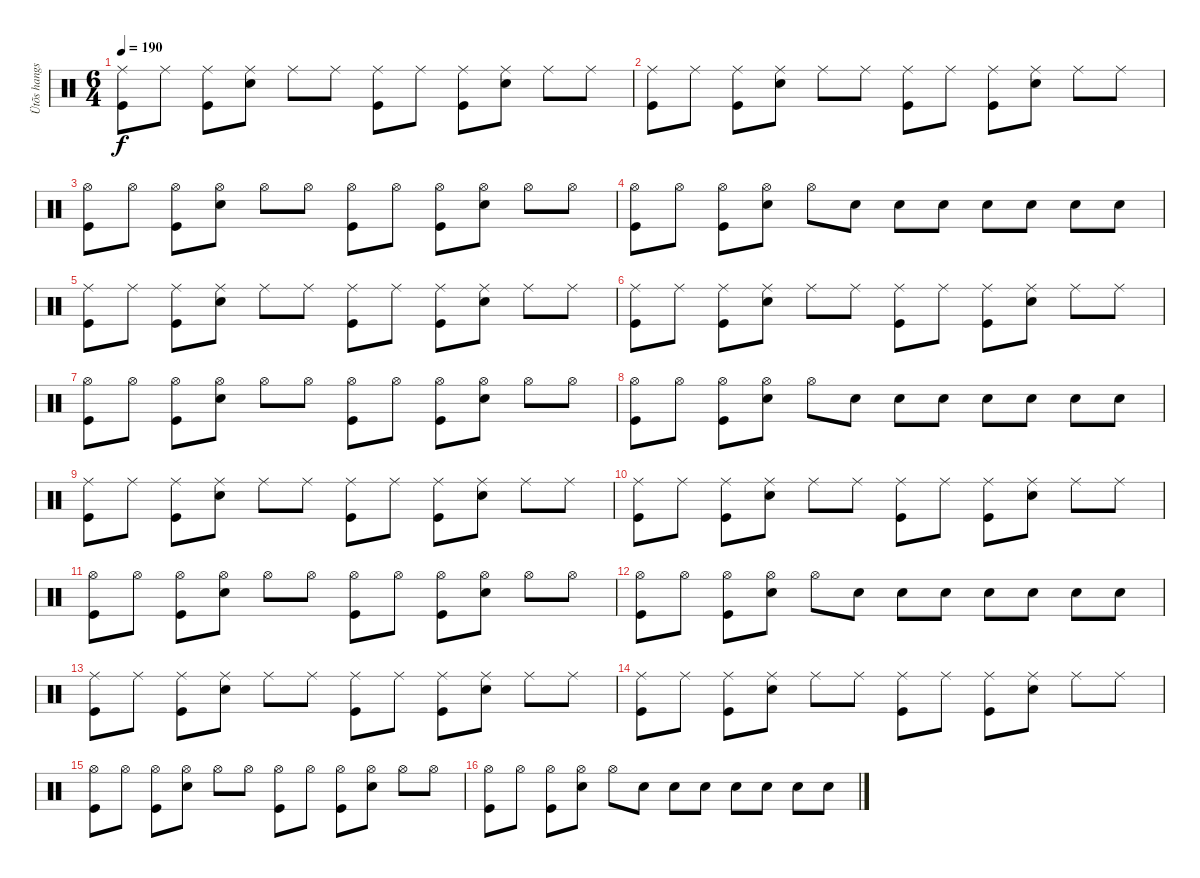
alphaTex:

\track ("Ütõs hangszer" "Ütõs hangs") {instrument percussion}
\staff {score}
\articulation defaults
\ts (6 4)
\tempo 190
\clef neutral
\ks c
("Ride (middle)" "Kick (hit)").8{dy f} "Ride (middle)".8 ("Ride (middle)" "Kick (hit)").8 ("Ride (middle)" "Snare (hit) 2").8 "Ride (middle)".8 "Ride (middle)".8 ("Ride (middle)" "Kick (hit)").8 "Ride (middle)".8 ("Ride (middle)" "Kick (hit)").8 ("Ride (middle)" "Snare (hit) 2").8 "Ride (middle)".8 "Ride (middle)".8 |
("Ride (middle)" "Kick (hit)").8 "Ride (middle)".8 ("Ride (middle)" "Kick (hit)").8 ("Ride (middle)" "Snare (hit) 2").8 "Ride (middle)".8 "Ride (middle)".8 ("Ride (middle)" "Kick (hit)").8 "Ride (middle)".8 ("Ride (middle)" "Kick (hit)").8 ("Ride (middle)" "Snare (hit) 2").8 "Ride (middle)".8 "Ride (middle)".8 |
("Hi-Hat (open)" "Kick (hit)").8 "Hi-Hat (open)".8 ("Hi-Hat (open)" "Kick (hit)").8 ("Hi-Hat (open)" "Snare (hit) 2").8 "Hi-Hat (open)".8 "Hi-Hat (open)".8 ("Hi-Hat (open)" "Kick (hit)").8 "Hi-Hat (open)".8 ("Hi-Hat (open)" "Kick (hit)").8 ("Hi-Hat (open)" "Snare (hit) 2").8 "Hi-Hat (open)".8 "Hi-Hat (open)".8 |
("Hi-Hat (open)" "Kick (hit)").8 "Hi-Hat (open)".8 ("Hi-Hat (open)" "Kick (hit)").8 ("Hi-Hat (open)" "Snare (hit) 2").8 "Hi-Hat (open)".8 "Snare (hit) 2".8 "Snare (hit) 2".8 "Snare (hit) 2".8 "Snare (hit) 2".8 "Snare (hit) 2".8 "Snare (hit) 2".8 "Snare (hit) 2".8 |
("Ride (middle)" "Kick (hit)").8 "Ride (middle)".8 ("Ride (middle)" "Kick (hit)").8 ("Ride (middle)" "Snare (hit) 2").8 "Ride (middle)".8 "Ride (middle)".8 ("Ride (middle)" "Kick (hit)").8 "Ride (middle)".8 ("Ride (middle)" "Kick (hit)").8 ("Ride (middle)" "Snare (hit) 2").8 "Ride (middle)".8 "Ride (middle)".8 |
("Ride (middle)" "Kick (hit)").8 "Ride (middle)".8 ("Ride (middle)" "Kick (hit)").8 ("Ride (middle)" "Snare (hit) 2").8 "Ride (middle)".8 "Ride (middle)".8 ("Ride (middle)" "Kick (hit)").8 "Ride (middle)".8 ("Ride (middle)" "Kick (hit)").8 ("Ride (middle)" "Snare (hit) 2").8 "Ride (middle)".8 "Ride (middle)".8 |
("Hi-Hat (open)" "Kick (hit)").8 "Hi-Hat (open)".8 ("Hi-Hat (open)" "Kick (hit)").8 ("Hi-Hat (open)" "Snare (hit) 2").8 "Hi-Hat (open)".8 "Hi-Hat (open)".8 ("Hi-Hat (open)" "Kick (hit)").8 "Hi-Hat (open)".8 ("Hi-Hat (open)" "Kick (hit)").8 ("Hi-Hat (open)" "Snare (hit) 2").8 "Hi-Hat (open)".8 "Hi-Hat (open)".8 |
("Hi-Hat (open)" "Kick (hit)").8 "Hi-Hat (open)".8 ("Hi-Hat (open)" "Kick (hit)").8 ("Hi-Hat (open)" "Snare (hit) 2").8 "Hi-Hat (open)".8 "Snare (hit) 2".8 "Snare (hit) 2".8 "Snare (hit) 2".8 "Snare (hit) 2".8 "Snare (hit) 2".8 "Snare (hit) 2".8 "Snare (hit) 2".8 |
("Ride (middle)" "Kick (hit)").8 "Ride (middle)".8 ("Ride (middle)" "Kick (hit)").8 ("Ride (middle)" "Snare (hit) 2").8 "Ride (middle)".8 "Ride (middle)".8 ("Ride (middle)" "Kick (hit)").8 "Ride (middle)".8 ("Ride (middle)" "Kick (hit)").8 ("Ride (middle)" "Snare (hit) 2").8 "Ride (middle)".8 "Ride (middle)".8 |
("Ride (middle)" "Kick (hit)").8 "Ride (middle)".8 ("Ride (middle)" "Kick (hit)").8 ("Ride (middle)" "Snare (hit) 2").8 "Ride (middle)".8 "Ride (middle)".8 ("Ride (middle)" "Kick (hit)").8 "Ride (middle)".8 ("Ride (middle)" "Kick (hit)").8 ("Ride (middle)" "Snare (hit) 2").8 "Ride (middle)".8 "Ride (middle)".8 |
("Hi-Hat (open)" "Kick (hit)").8 "Hi-Hat (open)".8 ("Hi-Hat (open)" "Kick (hit)").8 ("Hi-Hat (open)" "Snare (hit) 2").8 "Hi-Hat (open)".8 "Hi-Hat (open)".8 ("Hi-Hat (open)" "Kick (hit)").8 "Hi-Hat (open)".8 ("Hi-Hat (open)" "Kick (hit)").8 ("Hi-Hat (open)" "Snare (hit) 2").8 "Hi-Hat (open)".8 "Hi-Hat (open)".8 |
("Hi-Hat (open)" "Kick (hit)").8 "Hi-Hat (open)".8 ("Hi-Hat (open)" "Kick (hit)").8 ("Hi-Hat (open)" "Snare (hit) 2").8 "Hi-Hat (open)".8 "Snare (hit) 2".8 "Snare (hit) 2".8 "Snare (hit) 2".8 "Snare (hit) 2".8 "Snare (hit) 2".8 "Snare (hit) 2".8 "Snare (hit) 2".8 |
("Ride (middle)" "Kick (hit)").8 "Ride (middle)".8 ("Ride (middle)" "Kick (hit)").8 ("Ride (middle)" "Snare (hit) 2").8 "Ride (middle)".8 "Ride (middle)".8 ("Ride (middle)" "Kick (hit)").8 "Ride (middle)".8 ("Ride (middle)" "Kick (hit)").8 ("Ride (middle)" "Snare (hit) 2").8 "Ride (middle)".8 "Ride (middle)".8 |
("Ride (middle)" "Kick (hit)").8 "Ride (middle)".8 ("Ride (middle)" "Kick (hit)").8 ("Ride (middle)" "Snare (hit) 2").8 "Ride (middle)".8 "Ride (middle)".8 ("Ride (middle)" "Kick (hit)").8 "Ride (middle)".8 ("Ride (middle)" "Kick (hit)").8 ("Ride (middle)" "Snare (hit) 2").8 "Ride (middle)".8 "Ride (middle)".8 |
("Hi-Hat (open)" "Kick (hit)").8 "Hi-Hat (open)".8 ("Hi-Hat (open)" "Kick (hit)").8 ("Hi-Hat (open)" "Snare (hit) 2").8 "Hi-Hat (open)".8 "Hi-Hat (open)".8 ("Hi-Hat (open)" "Kick (hit)").8 "Hi-Hat (open)".8 ("Hi-Hat (open)" "Kick (hit)").8 ("Hi-Hat (open)" "Snare (hit) 2").8 "Hi-Hat (open)".8 "Hi-Hat (open)".8 |
("Hi-Hat (open)" "Kick (hit)").8 "Hi-Hat (open)".8 ("Hi-Hat (open)" "Kick (hit)").8 ("Hi-Hat (open)" "Snare (hit) 2").8 "Hi-Hat (open)".8 "Snare (hit) 2".8 "Snare (hit) 2".8 "Snare (hit) 2".8 "Snare (hit) 2".8 "Snare (hit) 2".8 "Snare (hit) 2".8 "Snare (hit) 2".8
